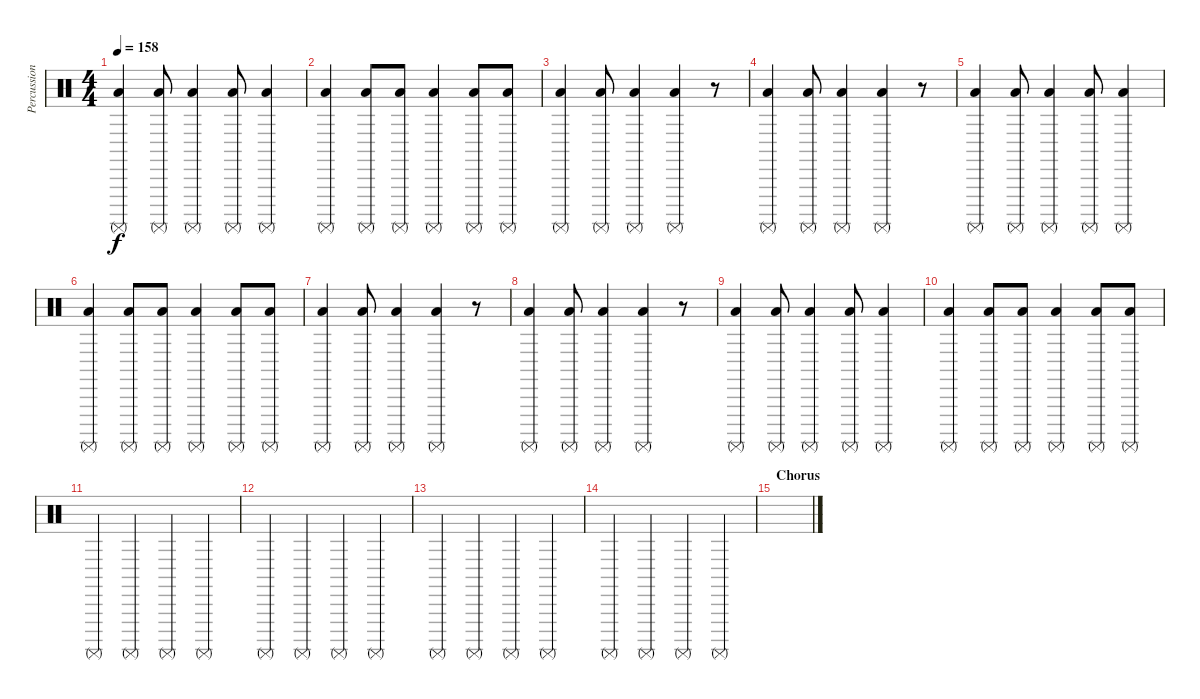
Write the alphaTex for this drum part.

\track ("Percussion" "Percussion") {instrument percussion}
\staff {score}
\articulation defaults
\ts (4 4)
\tempo 158
\clef neutral
\ks c
("Low Floor Tom (hit)" "Surdo (mute)").4{dy f} ("Low Floor Tom (hit)" "Surdo (mute)").8 ("Low Floor Tom (hit)" "Surdo (mute)").4 ("Low Floor Tom (hit)" "Surdo (mute)").8 ("Low Floor Tom (hit)" "Surdo (mute)").4 |
("Low Floor Tom (hit)" "Surdo (mute)").4 ("Low Floor Tom (hit)" "Surdo (mute)").8 ("Low Floor Tom (hit)" "Surdo (mute)").8 ("Low Floor Tom (hit)" "Surdo (mute)").4 ("Low Floor Tom (hit)" "Surdo (mute)").8 ("Low Floor Tom (hit)" "Surdo (mute)").8 |
("Low Floor Tom (hit)" "Surdo (mute)").4 ("Low Floor Tom (hit)" "Surdo (mute)").8 ("Low Floor Tom (hit)" "Surdo (mute)").4 ("Low Floor Tom (hit)" "Surdo (mute)").4 r.8 |
("Low Floor Tom (hit)" "Surdo (mute)").4 ("Low Floor Tom (hit)" "Surdo (mute)").8 ("Low Floor Tom (hit)" "Surdo (mute)").4 ("Low Floor Tom (hit)" "Surdo (mute)").4 r.8 |
("Low Floor Tom (hit)" "Surdo (mute)").4 ("Low Floor Tom (hit)" "Surdo (mute)").8 ("Low Floor Tom (hit)" "Surdo (mute)").4 ("Low Floor Tom (hit)" "Surdo (mute)").8 ("Low Floor Tom (hit)" "Surdo (mute)").4 |
("Low Floor Tom (hit)" "Surdo (mute)").4 ("Low Floor Tom (hit)" "Surdo (mute)").8 ("Low Floor Tom (hit)" "Surdo (mute)").8 ("Low Floor Tom (hit)" "Surdo (mute)").4 ("Low Floor Tom (hit)" "Surdo (mute)").8 ("Low Floor Tom (hit)" "Surdo (mute)").8 |
("Low Floor Tom (hit)" "Surdo (mute)").4 ("Low Floor Tom (hit)" "Surdo (mute)").8 ("Low Floor Tom (hit)" "Surdo (mute)").4 ("Low Floor Tom (hit)" "Surdo (mute)").4 r.8 |
("Low Floor Tom (hit)" "Surdo (mute)").4 ("Low Floor Tom (hit)" "Surdo (mute)").8 ("Low Floor Tom (hit)" "Surdo (mute)").4 ("Low Floor Tom (hit)" "Surdo (mute)").4 r.8 |
("Low Floor Tom (hit)" "Surdo (mute)").4 ("Low Floor Tom (hit)" "Surdo (mute)").8 ("Low Floor Tom (hit)" "Surdo (mute)").4 ("Low Floor Tom (hit)" "Surdo (mute)").8 ("Low Floor Tom (hit)" "Surdo (mute)").4 |
("Low Floor Tom (hit)" "Surdo (mute)").4 ("Low Floor Tom (hit)" "Surdo (mute)").8 ("Low Floor Tom (hit)" "Surdo (mute)").8 ("Low Floor Tom (hit)" "Surdo (mute)").4 ("Low Floor Tom (hit)" "Surdo (mute)").8 ("Low Floor Tom (hit)" "Surdo (mute)").8 |
"Surdo (mute)".4 "Surdo (mute)".4 "Surdo (mute)".4 "Surdo (mute)".4 |
"Surdo (mute)".4 "Surdo (mute)".4 "Surdo (mute)".4 "Surdo (mute)".4 |
"Surdo (mute)".4 "Surdo (mute)".4 "Surdo (mute)".4 "Surdo (mute)".4 |
"Surdo (mute)".4 "Surdo (mute)".4 "Surdo (mute)".4 "Surdo (mute)".4 |
\section ("" "Chorus")
